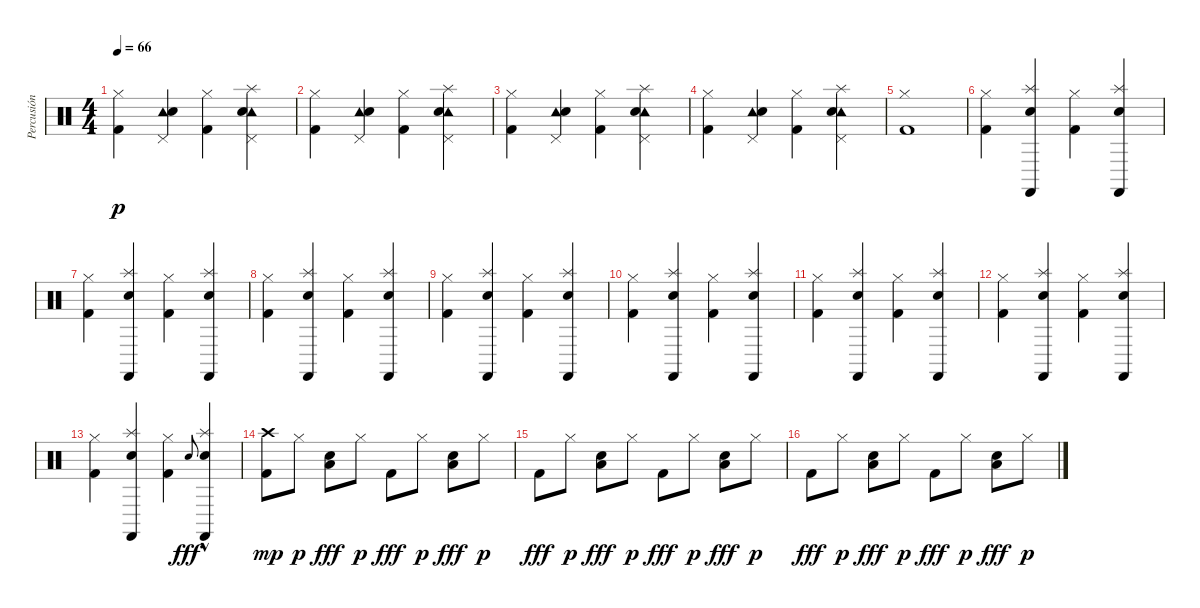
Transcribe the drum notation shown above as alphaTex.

\track ("Percusión" "Percusión") {instrument percussion}
\staff {score}
\articulation defaults
\ts (4 4)
\tempo 66
\clef neutral
\ks c
("Kick (hit) 2" "Hi-Hat (closed)").4{dy p} ("Pedal Hi-Hat (hit)" "Tambourine (hit)" "Electric Snare (hit)").4 ("Kick (hit) 2" "Hi-Hat (closed)").4 ("Pedal Hi-Hat (hit)" "Tambourine (hit)" "Electric Snare (hit)" "Splash (hit)").4 |
("Kick (hit) 2" "Hi-Hat (closed)").4 ("Pedal Hi-Hat (hit)" "Tambourine (hit)" "Electric Snare (hit)").4 ("Kick (hit) 2" "Hi-Hat (closed)").4 ("Pedal Hi-Hat (hit)" "Tambourine (hit)" "Electric Snare (hit)" "Splash (hit)").4 |
("Kick (hit) 2" "Hi-Hat (closed)").4 ("Pedal Hi-Hat (hit)" "Tambourine (hit)" "Electric Snare (hit)").4 ("Kick (hit) 2" "Hi-Hat (closed)").4 ("Pedal Hi-Hat (hit)" "Tambourine (hit)" "Electric Snare (hit)" "Splash (hit)").4 |
("Kick (hit) 2" "Hi-Hat (closed)").4 ("Pedal Hi-Hat (hit)" "Tambourine (hit)" "Electric Snare (hit)").4 ("Kick (hit) 2" "Hi-Hat (closed)").4 ("Pedal Hi-Hat (hit)" "Tambourine (hit)" "Electric Snare (hit)" "Splash (hit)").4 |
("Kick (hit) 2" "Hi-Hat (closed)").1 |
("Kick (hit) 2" "Hi-Hat (closed)").4 ("Castanets (hit)" "Splash (hit)" "Electric Snare (hit)").4 ("Kick (hit) 2" "Hi-Hat (closed)").4 ("Castanets (hit)" "Splash (hit)" "Electric Snare (hit)").4 |
("Kick (hit) 2" "Hi-Hat (closed)").4 ("Castanets (hit)" "Splash (hit)" "Electric Snare (hit)").4 ("Kick (hit) 2" "Hi-Hat (closed)").4 ("Castanets (hit)" "Splash (hit)" "Electric Snare (hit)").4 |
("Kick (hit) 2" "Hi-Hat (closed)").4 ("Castanets (hit)" "Splash (hit)" "Electric Snare (hit)").4 ("Kick (hit) 2" "Hi-Hat (closed)").4 ("Castanets (hit)" "Splash (hit)" "Electric Snare (hit)").4 |
("Kick (hit) 2" "Hi-Hat (closed)").4 ("Castanets (hit)" "Splash (hit)" "Electric Snare (hit)").4 ("Kick (hit) 2" "Hi-Hat (closed)").4 ("Castanets (hit)" "Splash (hit)" "Electric Snare (hit)").4 |
("Kick (hit) 2" "Hi-Hat (closed)").4 ("Castanets (hit)" "Splash (hit)" "Electric Snare (hit)").4 ("Kick (hit) 2" "Hi-Hat (closed)").4 ("Castanets (hit)" "Splash (hit)" "Electric Snare (hit)").4 |
("Kick (hit) 2" "Hi-Hat (closed)").4 ("Castanets (hit)" "Splash (hit)" "Electric Snare (hit)").4 ("Kick (hit) 2" "Hi-Hat (closed)").4 ("Castanets (hit)" "Splash (hit)" "Electric Snare (hit)").4 |
("Kick (hit) 2" "Hi-Hat (closed)").4 ("Castanets (hit)" "Splash (hit)" "Electric Snare (hit)").4 ("Kick (hit) 2" "Hi-Hat (closed)").4 ("Castanets (hit)" "Splash (hit)" "Electric Snare (hit)").4 |
("Kick (hit) 2" "Hi-Hat (closed)").4 ("Castanets (hit)" "Splash (hit)" "Electric Snare (hit)").4 ("Kick (hit) 2" "Hi-Hat (closed)").4 "Electric Snare (hit)".8{gr onbeat dy fff} ("Castanets (hit)" "Splash (hit)" "Electric Snare (hit)"{hac}).4 |
("Kick (hit) 2" "Crash high (hit)").8{dy mp} "Hi-Hat (closed)".8{dy p} ("Electric Snare (hit)" "Low Floor Tom (hit)").8{dy fff} "Hi-Hat (closed)".8{dy p} "Kick (hit) 2".8{dy fff} "Hi-Hat (closed)".8{dy p} ("Electric Snare (hit)" "Low Floor Tom (hit)").8{dy fff} "Hi-Hat (closed)".8{dy p} |
"Kick (hit) 2".8{dy fff} "Hi-Hat (closed)".8{dy p} ("Electric Snare (hit)" "Low Floor Tom (hit)").8{dy fff} "Hi-Hat (closed)".8{dy p} "Kick (hit) 2".8{dy fff} "Hi-Hat (closed)".8{dy p} ("Electric Snare (hit)" "Low Floor Tom (hit)").8{dy fff} "Hi-Hat (closed)".8{dy p} |
"Kick (hit) 2".8{dy fff} "Hi-Hat (closed)".8{dy p} ("Electric Snare (hit)" "Low Floor Tom (hit)").8{dy fff} "Hi-Hat (closed)".8{dy p} "Kick (hit) 2".8{dy fff} "Hi-Hat (closed)".8{dy p} ("Electric Snare (hit)" "Low Floor Tom (hit)").8{dy fff} "Hi-Hat (closed)".8{dy p}
